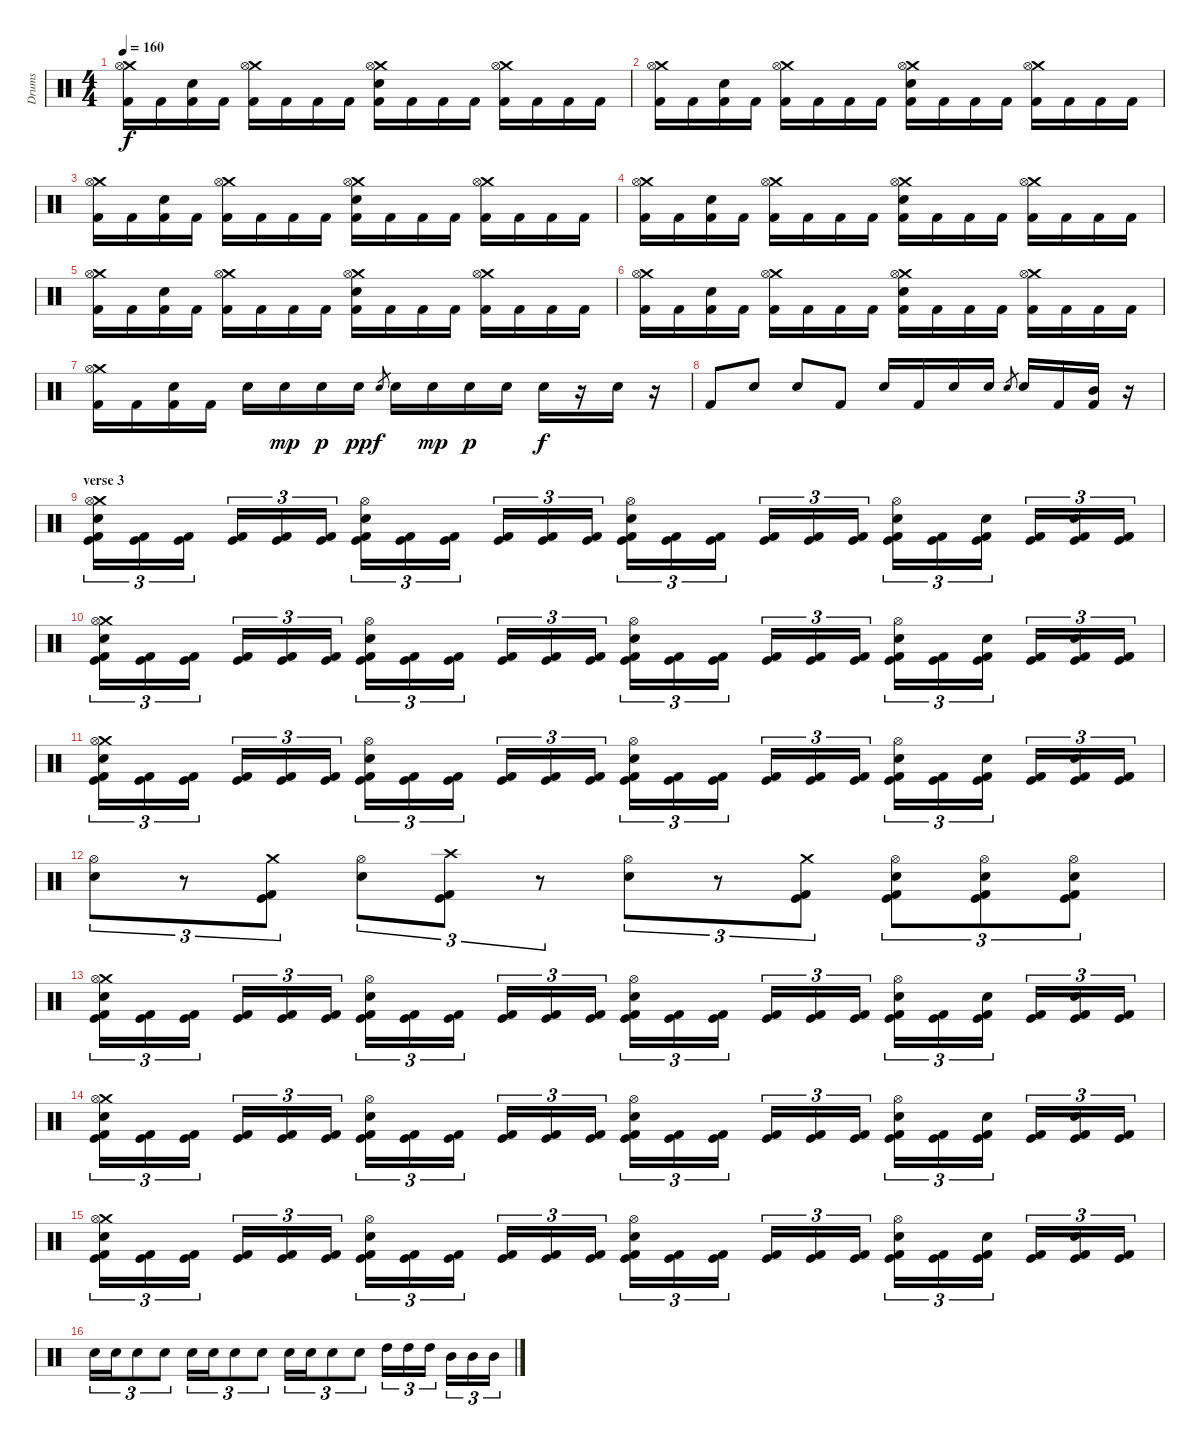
\track ("Drums" "Drums") {instrument percussion}
\staff {score}
\articulation defaults
\ts (4 4)
\tempo 160
\clef neutral
\ks c
("Crash medium (hit)" "Hi-Hat (open)" "Kick (hit) 2").16{dy f} "Kick (hit) 2".16 ("Electric Snare (hit)" "Kick (hit) 2").16 "Kick (hit) 2".16 ("Crash medium (hit)" "Hi-Hat (open)" "Kick (hit) 2").16 "Kick (hit) 2".16 "Kick (hit) 2".16 "Kick (hit) 2".16 ("Crash medium (hit)" "Hi-Hat (open)" "Electric Snare (hit)" "Kick (hit) 2").16 "Kick (hit) 2".16 "Kick (hit) 2".16 "Kick (hit) 2".16 ("Crash medium (hit)" "Hi-Hat (open)" "Kick (hit) 2").16 "Kick (hit) 2".16 "Kick (hit) 2".16 "Kick (hit) 2".16 |
("Crash medium (hit)" "Hi-Hat (open)" "Kick (hit) 2").16 "Kick (hit) 2".16 ("Electric Snare (hit)" "Kick (hit) 2").16 "Kick (hit) 2".16 ("Crash medium (hit)" "Hi-Hat (open)" "Kick (hit) 2").16 "Kick (hit) 2".16 "Kick (hit) 2".16 "Kick (hit) 2".16 ("Crash medium (hit)" "Hi-Hat (open)" "Electric Snare (hit)" "Kick (hit) 2").16 "Kick (hit) 2".16 "Kick (hit) 2".16 "Kick (hit) 2".16 ("Crash medium (hit)" "Hi-Hat (open)" "Kick (hit) 2").16 "Kick (hit) 2".16 "Kick (hit) 2".16 "Kick (hit) 2".16 |
("Crash medium (hit)" "Hi-Hat (open)" "Kick (hit) 2").16 "Kick (hit) 2".16 ("Electric Snare (hit)" "Kick (hit) 2").16 "Kick (hit) 2".16 ("Crash medium (hit)" "Hi-Hat (open)" "Kick (hit) 2").16 "Kick (hit) 2".16 "Kick (hit) 2".16 "Kick (hit) 2".16 ("Crash medium (hit)" "Hi-Hat (open)" "Electric Snare (hit)" "Kick (hit) 2").16 "Kick (hit) 2".16 "Kick (hit) 2".16 "Kick (hit) 2".16 ("Crash medium (hit)" "Hi-Hat (open)" "Kick (hit) 2").16 "Kick (hit) 2".16 "Kick (hit) 2".16 "Kick (hit) 2".16 |
("Crash medium (hit)" "Hi-Hat (open)" "Kick (hit) 2").16 "Kick (hit) 2".16 ("Electric Snare (hit)" "Kick (hit) 2").16 "Kick (hit) 2".16 ("Crash medium (hit)" "Hi-Hat (open)" "Kick (hit) 2").16 "Kick (hit) 2".16 "Kick (hit) 2".16 "Kick (hit) 2".16 ("Crash medium (hit)" "Hi-Hat (open)" "Electric Snare (hit)" "Kick (hit) 2").16 "Kick (hit) 2".16 "Kick (hit) 2".16 "Kick (hit) 2".16 ("Crash medium (hit)" "Hi-Hat (open)" "Kick (hit) 2").16 "Kick (hit) 2".16 "Kick (hit) 2".16 "Kick (hit) 2".16 |
("Crash medium (hit)" "Hi-Hat (open)" "Kick (hit) 2").16 "Kick (hit) 2".16 ("Electric Snare (hit)" "Kick (hit) 2").16 "Kick (hit) 2".16 ("Crash medium (hit)" "Hi-Hat (open)" "Kick (hit) 2").16 "Kick (hit) 2".16 "Kick (hit) 2".16 "Kick (hit) 2".16 ("Crash medium (hit)" "Hi-Hat (open)" "Electric Snare (hit)" "Kick (hit) 2").16 "Kick (hit) 2".16 "Kick (hit) 2".16 "Kick (hit) 2".16 ("Crash medium (hit)" "Hi-Hat (open)" "Kick (hit) 2").16 "Kick (hit) 2".16 "Kick (hit) 2".16 "Kick (hit) 2".16 |
("Crash medium (hit)" "Hi-Hat (open)" "Kick (hit) 2").16 "Kick (hit) 2".16 ("Electric Snare (hit)" "Kick (hit) 2").16 "Kick (hit) 2".16 ("Crash medium (hit)" "Hi-Hat (open)" "Kick (hit) 2").16 "Kick (hit) 2".16 "Kick (hit) 2".16 "Kick (hit) 2".16 ("Crash medium (hit)" "Hi-Hat (open)" "Electric Snare (hit)" "Kick (hit) 2").16 "Kick (hit) 2".16 "Kick (hit) 2".16 "Kick (hit) 2".16 ("Crash medium (hit)" "Hi-Hat (open)" "Kick (hit) 2").16 "Kick (hit) 2".16 "Kick (hit) 2".16 "Kick (hit) 2".16 |
("Crash medium (hit)" "Hi-Hat (open)" "Kick (hit) 2").16 "Kick (hit) 2".16 ("Electric Snare (hit)" "Kick (hit) 2").16 "Kick (hit) 2".16 "Electric Snare (hit)".16 "Electric Snare (hit)".16{dy mp} "Electric Snare (hit)".16{dy p} "Electric Snare (hit)".16{dy pp} "Electric Snare (hit)".8{gr dy f} "Electric Snare (hit)".16 "Electric Snare (hit)".16{dy mp} "Electric Snare (hit)".16{dy p} "Electric Snare (hit)".16 "Electric Snare (hit)".16{dy f} r.16 "Electric Snare (hit)".16 r.16 |
"Kick (hit) 2".8 "Electric Snare (hit)".8 "Electric Snare (hit)".8 "Kick (hit) 2".8 "Electric Snare (hit)".16 "Kick (hit) 2".16 "Electric Snare (hit)".16 "Electric Snare (hit)".16 "Electric Snare (hit)".8{gr} "Electric Snare (hit)".16 "Kick (hit) 2".16 ("Mid Tom (hit)" "Kick (hit) 2").16 r.16 |
\section ("" "verse 3")
("Crash medium (hit)" "Hi-Hat (open)" "Electric Snare (hit)" "Kick (hit)" "Kick (hit) 2").16{tu (3 2)} ("Kick (hit)" "Kick (hit) 2").16{tu (3 2)} ("Kick (hit)" "Kick (hit) 2").16{tu (3 2)} ("Kick (hit)" "Kick (hit) 2").16{tu (3 2)} ("Kick (hit)" "Kick (hit) 2").16{tu (3 2)} ("Kick (hit)" "Kick (hit) 2").16{tu (3 2)} ("Hi-Hat (open)" "Electric Snare (hit)" "Kick (hit)" "Kick (hit) 2").16{tu (3 2)} ("Kick (hit)" "Kick (hit) 2").16{tu (3 2)} ("Kick (hit)" "Kick (hit) 2").16{tu (3 2)} ("Kick (hit)" "Kick (hit) 2").16{tu (3 2)} ("Kick (hit)" "Kick (hit) 2").16{tu (3 2)} ("Kick (hit)" "Kick (hit) 2").16{tu (3 2)} ("Hi-Hat (open)" "Electric Snare (hit)" "Kick (hit)" "Kick (hit) 2").16{tu (3 2)} ("Kick (hit)" "Kick (hit) 2").16{tu (3 2)} ("Kick (hit)" "Kick (hit) 2").16{tu (3 2)} ("Kick (hit)" "Kick (hit) 2").16{tu (3 2)} ("Kick (hit)" "Kick (hit) 2").16{tu (3 2)} ("Kick (hit)" "Kick (hit) 2").16{tu (3 2)} ("Hi-Hat (open)" "Electric Snare (hit)" "Kick (hit)" "Kick (hit) 2").16{tu (3 2)} ("Kick (hit)" "Kick (hit) 2").16{tu (3 2)} ("Electric Snare (hit)" "Kick (hit)" "Kick (hit) 2").16{tu (3 2)} ("Kick (hit)" "Kick (hit) 2").16{tu (3 2)} ("Electric Snare (hit)" "Kick (hit)" "Kick (hit) 2").16{tu (3 2)} ("Kick (hit)" "Kick (hit) 2").16{tu (3 2)} |
("Crash medium (hit)" "Hi-Hat (open)" "Electric Snare (hit)" "Kick (hit)" "Kick (hit) 2").16{tu (3 2)} ("Kick (hit)" "Kick (hit) 2").16{tu (3 2)} ("Kick (hit)" "Kick (hit) 2").16{tu (3 2)} ("Kick (hit)" "Kick (hit) 2").16{tu (3 2)} ("Kick (hit)" "Kick (hit) 2").16{tu (3 2)} ("Kick (hit)" "Kick (hit) 2").16{tu (3 2)} ("Hi-Hat (open)" "Electric Snare (hit)" "Kick (hit)" "Kick (hit) 2").16{tu (3 2)} ("Kick (hit)" "Kick (hit) 2").16{tu (3 2)} ("Kick (hit)" "Kick (hit) 2").16{tu (3 2)} ("Kick (hit)" "Kick (hit) 2").16{tu (3 2)} ("Kick (hit)" "Kick (hit) 2").16{tu (3 2)} ("Kick (hit)" "Kick (hit) 2").16{tu (3 2)} ("Hi-Hat (open)" "Electric Snare (hit)" "Kick (hit)" "Kick (hit) 2").16{tu (3 2)} ("Kick (hit)" "Kick (hit) 2").16{tu (3 2)} ("Kick (hit)" "Kick (hit) 2").16{tu (3 2)} ("Kick (hit)" "Kick (hit) 2").16{tu (3 2)} ("Kick (hit)" "Kick (hit) 2").16{tu (3 2)} ("Kick (hit)" "Kick (hit) 2").16{tu (3 2)} ("Hi-Hat (open)" "Electric Snare (hit)" "Kick (hit)" "Kick (hit) 2").16{tu (3 2)} ("Kick (hit)" "Kick (hit) 2").16{tu (3 2)} ("Electric Snare (hit)" "Kick (hit)" "Kick (hit) 2").16{tu (3 2)} ("Kick (hit)" "Kick (hit) 2").16{tu (3 2)} ("Electric Snare (hit)" "Kick (hit)" "Kick (hit) 2").16{tu (3 2)} ("Kick (hit)" "Kick (hit) 2").16{tu (3 2)} |
("Crash medium (hit)" "Hi-Hat (open)" "Electric Snare (hit)" "Kick (hit)" "Kick (hit) 2").16{tu (3 2)} ("Kick (hit)" "Kick (hit) 2").16{tu (3 2)} ("Kick (hit)" "Kick (hit) 2").16{tu (3 2)} ("Kick (hit)" "Kick (hit) 2").16{tu (3 2)} ("Kick (hit)" "Kick (hit) 2").16{tu (3 2)} ("Kick (hit)" "Kick (hit) 2").16{tu (3 2)} ("Hi-Hat (open)" "Electric Snare (hit)" "Kick (hit)" "Kick (hit) 2").16{tu (3 2)} ("Kick (hit)" "Kick (hit) 2").16{tu (3 2)} ("Kick (hit)" "Kick (hit) 2").16{tu (3 2)} ("Kick (hit)" "Kick (hit) 2").16{tu (3 2)} ("Kick (hit)" "Kick (hit) 2").16{tu (3 2)} ("Kick (hit)" "Kick (hit) 2").16{tu (3 2)} ("Hi-Hat (open)" "Electric Snare (hit)" "Kick (hit)" "Kick (hit) 2").16{tu (3 2)} ("Kick (hit)" "Kick (hit) 2").16{tu (3 2)} ("Kick (hit)" "Kick (hit) 2").16{tu (3 2)} ("Kick (hit)" "Kick (hit) 2").16{tu (3 2)} ("Kick (hit)" "Kick (hit) 2").16{tu (3 2)} ("Kick (hit)" "Kick (hit) 2").16{tu (3 2)} ("Hi-Hat (open)" "Electric Snare (hit)" "Kick (hit)" "Kick (hit) 2").16{tu (3 2)} ("Kick (hit)" "Kick (hit) 2").16{tu (3 2)} ("Electric Snare (hit)" "Kick (hit)" "Kick (hit) 2").16{tu (3 2)} ("Kick (hit)" "Kick (hit) 2").16{tu (3 2)} ("Electric Snare (hit)" "Kick (hit)" "Kick (hit) 2").16{tu (3 2)} ("Kick (hit)" "Kick (hit) 2").16{tu (3 2)} |
("Hi-Hat (open)" "Electric Snare (hit)").8{tu (3 2)} r.8{tu (3 2)} ("Crash medium (hit)" "Kick (hit)" "Kick (hit) 2").8{tu (3 2)} ("Hi-Hat (open)" "Electric Snare (hit)").8{tu (3 2)} ("Crash high (hit)" "Kick (hit)" "Kick (hit) 2").8{tu (3 2)} r.8{tu (3 2)} ("Hi-Hat (open)" "Electric Snare (hit)").8{tu (3 2)} r.8{tu (3 2)} ("Crash medium (hit)" "Kick (hit)" "Kick (hit) 2").8{tu (3 2)} ("Hi-Hat (open)" "Electric Snare (hit)" "Kick (hit)" "Kick (hit) 2").8{tu (3 2)} ("Hi-Hat (open)" "Electric Snare (hit)" "Kick (hit)" "Kick (hit) 2").8{tu (3 2)} ("Hi-Hat (open)" "Electric Snare (hit)" "Kick (hit)" "Kick (hit) 2").8{tu (3 2)} |
("Crash medium (hit)" "Hi-Hat (open)" "Electric Snare (hit)" "Kick (hit)" "Kick (hit) 2").16{tu (3 2)} ("Kick (hit)" "Kick (hit) 2").16{tu (3 2)} ("Kick (hit)" "Kick (hit) 2").16{tu (3 2)} ("Kick (hit)" "Kick (hit) 2").16{tu (3 2)} ("Kick (hit)" "Kick (hit) 2").16{tu (3 2)} ("Kick (hit)" "Kick (hit) 2").16{tu (3 2)} ("Hi-Hat (open)" "Electric Snare (hit)" "Kick (hit)" "Kick (hit) 2").16{tu (3 2)} ("Kick (hit)" "Kick (hit) 2").16{tu (3 2)} ("Kick (hit)" "Kick (hit) 2").16{tu (3 2)} ("Kick (hit)" "Kick (hit) 2").16{tu (3 2)} ("Kick (hit)" "Kick (hit) 2").16{tu (3 2)} ("Kick (hit)" "Kick (hit) 2").16{tu (3 2)} ("Hi-Hat (open)" "Electric Snare (hit)" "Kick (hit)" "Kick (hit) 2").16{tu (3 2)} ("Kick (hit)" "Kick (hit) 2").16{tu (3 2)} ("Kick (hit)" "Kick (hit) 2").16{tu (3 2)} ("Kick (hit)" "Kick (hit) 2").16{tu (3 2)} ("Kick (hit)" "Kick (hit) 2").16{tu (3 2)} ("Kick (hit)" "Kick (hit) 2").16{tu (3 2)} ("Hi-Hat (open)" "Electric Snare (hit)" "Kick (hit)" "Kick (hit) 2").16{tu (3 2)} ("Kick (hit)" "Kick (hit) 2").16{tu (3 2)} ("Electric Snare (hit)" "Kick (hit)" "Kick (hit) 2").16{tu (3 2)} ("Kick (hit)" "Kick (hit) 2").16{tu (3 2)} ("Electric Snare (hit)" "Kick (hit)" "Kick (hit) 2").16{tu (3 2)} ("Kick (hit)" "Kick (hit) 2").16{tu (3 2)} |
("Crash medium (hit)" "Hi-Hat (open)" "Electric Snare (hit)" "Kick (hit)" "Kick (hit) 2").16{tu (3 2)} ("Kick (hit)" "Kick (hit) 2").16{tu (3 2)} ("Kick (hit)" "Kick (hit) 2").16{tu (3 2)} ("Kick (hit)" "Kick (hit) 2").16{tu (3 2)} ("Kick (hit)" "Kick (hit) 2").16{tu (3 2)} ("Kick (hit)" "Kick (hit) 2").16{tu (3 2)} ("Hi-Hat (open)" "Electric Snare (hit)" "Kick (hit)" "Kick (hit) 2").16{tu (3 2)} ("Kick (hit)" "Kick (hit) 2").16{tu (3 2)} ("Kick (hit)" "Kick (hit) 2").16{tu (3 2)} ("Kick (hit)" "Kick (hit) 2").16{tu (3 2)} ("Kick (hit)" "Kick (hit) 2").16{tu (3 2)} ("Kick (hit)" "Kick (hit) 2").16{tu (3 2)} ("Hi-Hat (open)" "Electric Snare (hit)" "Kick (hit)" "Kick (hit) 2").16{tu (3 2)} ("Kick (hit)" "Kick (hit) 2").16{tu (3 2)} ("Kick (hit)" "Kick (hit) 2").16{tu (3 2)} ("Kick (hit)" "Kick (hit) 2").16{tu (3 2)} ("Kick (hit)" "Kick (hit) 2").16{tu (3 2)} ("Kick (hit)" "Kick (hit) 2").16{tu (3 2)} ("Hi-Hat (open)" "Electric Snare (hit)" "Kick (hit)" "Kick (hit) 2").16{tu (3 2)} ("Kick (hit)" "Kick (hit) 2").16{tu (3 2)} ("Electric Snare (hit)" "Kick (hit)" "Kick (hit) 2").16{tu (3 2)} ("Kick (hit)" "Kick (hit) 2").16{tu (3 2)} ("Electric Snare (hit)" "Kick (hit)" "Kick (hit) 2").16{tu (3 2)} ("Kick (hit)" "Kick (hit) 2").16{tu (3 2)} |
("Crash medium (hit)" "Hi-Hat (open)" "Electric Snare (hit)" "Kick (hit)" "Kick (hit) 2").16{tu (3 2)} ("Kick (hit)" "Kick (hit) 2").16{tu (3 2)} ("Kick (hit)" "Kick (hit) 2").16{tu (3 2)} ("Kick (hit)" "Kick (hit) 2").16{tu (3 2)} ("Kick (hit)" "Kick (hit) 2").16{tu (3 2)} ("Kick (hit)" "Kick (hit) 2").16{tu (3 2)} ("Hi-Hat (open)" "Electric Snare (hit)" "Kick (hit)" "Kick (hit) 2").16{tu (3 2)} ("Kick (hit)" "Kick (hit) 2").16{tu (3 2)} ("Kick (hit)" "Kick (hit) 2").16{tu (3 2)} ("Kick (hit)" "Kick (hit) 2").16{tu (3 2)} ("Kick (hit)" "Kick (hit) 2").16{tu (3 2)} ("Kick (hit)" "Kick (hit) 2").16{tu (3 2)} ("Hi-Hat (open)" "Electric Snare (hit)" "Kick (hit)" "Kick (hit) 2").16{tu (3 2)} ("Kick (hit)" "Kick (hit) 2").16{tu (3 2)} ("Kick (hit)" "Kick (hit) 2").16{tu (3 2)} ("Kick (hit)" "Kick (hit) 2").16{tu (3 2)} ("Kick (hit)" "Kick (hit) 2").16{tu (3 2)} ("Kick (hit)" "Kick (hit) 2").16{tu (3 2)} ("Hi-Hat (open)" "Electric Snare (hit)" "Kick (hit)" "Kick (hit) 2").16{tu (3 2)} ("Kick (hit)" "Kick (hit) 2").16{tu (3 2)} ("Electric Snare (hit)" "Kick (hit)" "Kick (hit) 2").16{tu (3 2)} ("Kick (hit)" "Kick (hit) 2").16{tu (3 2)} ("Electric Snare (hit)" "Kick (hit)" "Kick (hit) 2").16{tu (3 2)} ("Kick (hit)" "Kick (hit) 2").16{tu (3 2)} |
"Electric Snare (hit)".16{tu (3 2)} "Electric Snare (hit)".16{tu (3 2)} "Electric Snare (hit)".8{tu (3 2)} "Electric Snare (hit)".8{tu (3 2)} "Electric Snare (hit)".16{tu (3 2)} "Electric Snare (hit)".16{tu (3 2)} "Electric Snare (hit)".8{tu (3 2)} "Electric Snare (hit)".8{tu (3 2)} "Electric Snare (hit)".16{tu (3 2)} "Electric Snare (hit)".16{tu (3 2)} "Electric Snare (hit)".8{tu (3 2)} "Electric Snare (hit)".8{tu (3 2)} "High Tom (hit)".16{tu (3 2)} "High Tom (hit)".16{tu (3 2)} "High Tom (hit)".16{tu (3 2)} "Mid Tom (hit)".16{tu (3 2)} "Mid Tom (hit)".16{tu (3 2)} "Mid Tom (hit)".16{tu (3 2)}
